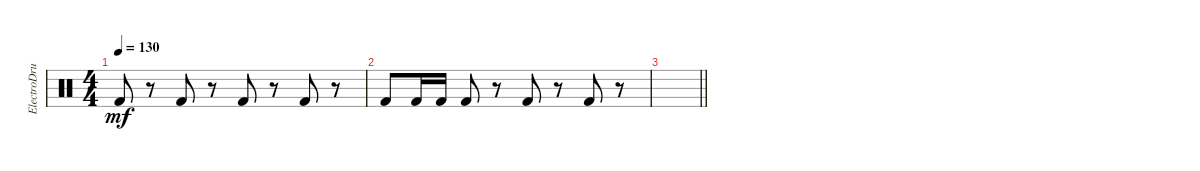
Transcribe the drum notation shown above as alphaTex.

\track ("ElectroDrums" "ElectroDru") {instrument percussion}
\staff {score}
\articulation defaults
\ts (4 4)
\tempo 130
\clef neutral
\ks c "Kick (hit) 2".8{dy mf}
r.8 "Kick (hit) 2".8 r.8 "Kick (hit) 2".8 r.8 "Kick (hit) 2".8 r.8 |
"Kick (hit) 2".8 "Kick (hit) 2".16 "Kick (hit) 2".16 "Kick (hit) 2".8 r.8 "Kick (hit) 2".8 r.8 "Kick (hit) 2".8 r.8 |
\barLineRight lightlight
